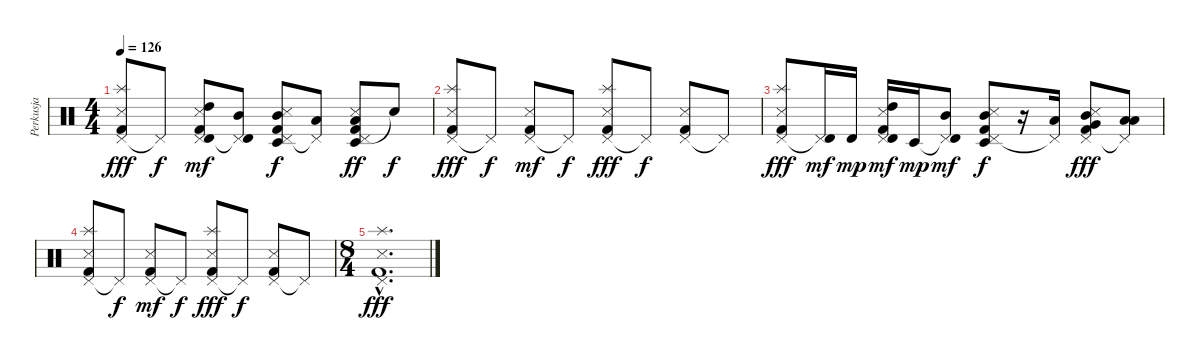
\track ("Perkusja" "Perkusja") {instrument percussion}
\staff {score}
\articulation defaults
\ts (4 4)
\tempo 126
\clef neutral
\ks c
("Pedal Hi-Hat (hit)" "Kick (hit) 2" "Splash (hit)" "Snare (side stick) 3").8{dy fff} "Pedal Hi-Hat (hit)"{t}.8{dy f} ("Pedal Hi-Hat (hit)" "Kick (hit) 2" "Timbale high (hit)" "High Tom (hit)" "Snare (side stick) 3").8{dy mf} ("Pedal Hi-Hat (hit)"{t} "Timbale high (hit)" "Mid Tom (hit)").8 ("Pedal Hi-Hat (hit)" "Kick (hit) 2" "Timbale low (hit)" "Mid Tom (hit)" "Snare (side stick) 3").8{dy f} ("Pedal Hi-Hat (hit)"{t} "Low Tom (hit)").8 ("Pedal Hi-Hat (hit)" "Kick (hit) 2" "Timbale low (hit)" "Low Tom (hit)" "Snare (side stick) 3").8{dy ff} "Snare (hit)"{t}.8{dy f} |
("Pedal Hi-Hat (hit)" "Kick (hit) 2" "Splash (hit)" "Snare (side stick) 3").8{dy fff} "Pedal Hi-Hat (hit)"{t}.8{dy f} ("Pedal Hi-Hat (hit)" "Kick (hit) 2" "Snare (side stick) 3").8{dy mf} "Pedal Hi-Hat (hit)"{t}.8{dy f} ("Pedal Hi-Hat (hit)" "Kick (hit) 2" "Splash (hit)" "Snare (side stick) 3").8{dy fff} "Pedal Hi-Hat (hit)"{t}.8{dy f} ("Pedal Hi-Hat (hit)" "Kick (hit) 2" "Snare (side stick) 3").8 "Pedal Hi-Hat (hit)"{t}.8 |
("Pedal Hi-Hat (hit)" "Kick (hit) 2" "Splash (hit)" "Snare (side stick) 3").8{dy fff} ("Pedal Hi-Hat (hit)"{t} "Timbale high (hit)").16{dy mf} "Timbale high (hit)".16{dy mp} ("Pedal Hi-Hat (hit)" "Kick (hit) 2" "Timbale high (hit)" "High Tom (hit)" "Snare (side stick) 3").16{dy mf} "Timbale low (hit)".16{dy mp} ("Pedal Hi-Hat (hit)"{t} "Timbale high (hit)" "Mid Tom (hit)").8{dy mf} ("Pedal Hi-Hat (hit)" "Kick (hit) 2" "Timbale low (hit)" "Mid Tom (hit)" "Snare (side stick) 3").8{dy f} r.16 ("Pedal Hi-Hat (hit)"{t} "Low Tom (hit)").16 ("Pedal Hi-Hat (hit)" "Kick (hit) 2" "Mid Tom (hit)" "Very Low Tom (hit)" "Snare (side stick) 3").8{dy fff} ("Pedal Hi-Hat (hit)"{t} "Low Tom (hit)" "Low Floor Tom (hit)").8 |
("Pedal Hi-Hat (hit)" "Kick (hit) 2" "Splash (hit)" "Snare (side stick) 3").8 "Pedal Hi-Hat (hit)"{t}.8{dy f} ("Pedal Hi-Hat (hit)" "Kick (hit) 2" "Snare (side stick) 3").8{dy mf} "Pedal Hi-Hat (hit)"{t}.8{dy f} ("Pedal Hi-Hat (hit)" "Kick (hit) 2" "Splash (hit)" "Snare (side stick) 3").8{dy fff} "Pedal Hi-Hat (hit)"{t}.8{dy f} ("Pedal Hi-Hat (hit)" "Kick (hit) 2" "Snare (side stick) 3").8 "Pedal Hi-Hat (hit)"{t}.8 |
\ts (8 4)
("Pedal Hi-Hat (hit)"{hac} "Kick (hit) 2"{hac} "Splash (hit)"{hac} "Snare (side stick) 3"{hac}).1{d dy fff}
